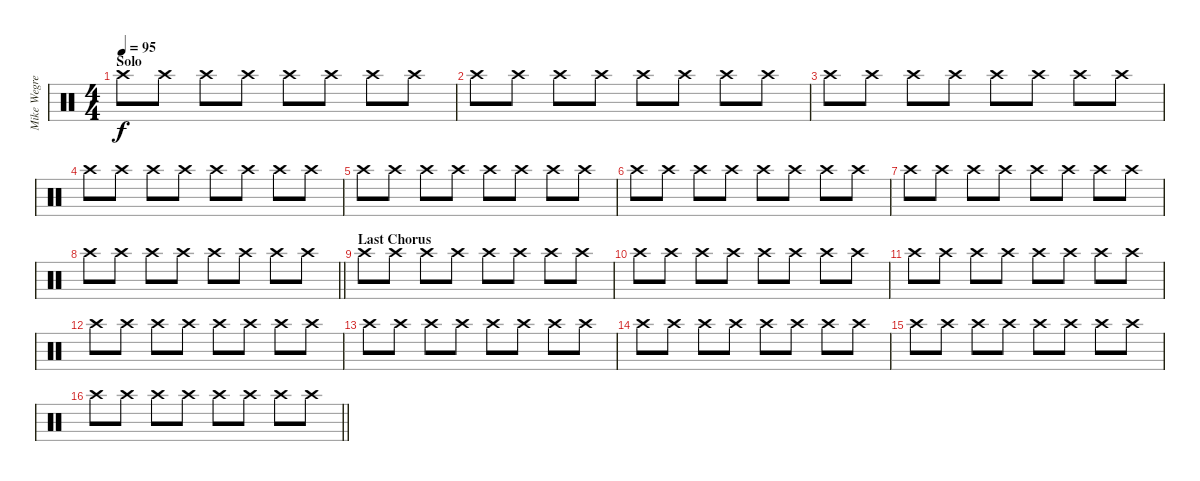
\track ("Mike Wegren" "Mike Wegre") {instrument percussion}
\staff {score}
\articulation defaults
\ts (4 4)
\section ("" "Solo")
\tempo 95
\clef neutral
\ks c "Crash high (hit)".8{dy f} "Crash high (hit)".8 "Crash high (hit)".8 "Crash high (hit)".8 "Crash high (hit)".8 "Crash high (hit)".8 "Crash high (hit)".8 "Crash high (hit)".8
|
"Crash high (hit)".8 "Crash high (hit)".8 "Crash high (hit)".8 "Crash high (hit)".8 "Crash high (hit)".8 "Crash high (hit)".8 "Crash high (hit)".8 "Crash high (hit)".8 |
"Crash high (hit)".8 "Crash high (hit)".8 "Crash high (hit)".8 "Crash high (hit)".8 "Crash high (hit)".8 "Crash high (hit)".8 "Crash high (hit)".8 "Crash high (hit)".8 |
"Crash high (hit)".8 "Crash high (hit)".8 "Crash high (hit)".8 "Crash high (hit)".8 "Crash high (hit)".8 "Crash high (hit)".8 "Crash high (hit)".8 "Crash high (hit)".8 |
"Crash high (hit)".8 "Crash high (hit)".8 "Crash high (hit)".8 "Crash high (hit)".8 "Crash high (hit)".8 "Crash high (hit)".8 "Crash high (hit)".8 "Crash high (hit)".8 |
"Crash high (hit)".8 "Crash high (hit)".8 "Crash high (hit)".8 "Crash high (hit)".8 "Crash high (hit)".8 "Crash high (hit)".8 "Crash high (hit)".8 "Crash high (hit)".8 |
"Crash high (hit)".8 "Crash high (hit)".8 "Crash high (hit)".8 "Crash high (hit)".8 "Crash high (hit)".8 "Crash high (hit)".8 "Crash high (hit)".8 "Crash high (hit)".8 |
\barLineRight lightlight "Crash high (hit)".8 "Crash high (hit)".8 "Crash high (hit)".8 "Crash high (hit)".8 "Crash high (hit)".8 "Crash high (hit)".8 "Crash high (hit)".8 "Crash high (hit)".8
|
\section ("" "Last Chorus")
"Crash high (hit)".8 "Crash high (hit)".8 "Crash high (hit)".8 "Crash high (hit)".8 "Crash high (hit)".8 "Crash high (hit)".8 "Crash high (hit)".8 "Crash high (hit)".8 |
"Crash high (hit)".8 "Crash high (hit)".8 "Crash high (hit)".8 "Crash high (hit)".8 "Crash high (hit)".8 "Crash high (hit)".8 "Crash high (hit)".8 "Crash high (hit)".8 |
"Crash high (hit)".8 "Crash high (hit)".8 "Crash high (hit)".8 "Crash high (hit)".8 "Crash high (hit)".8 "Crash high (hit)".8 "Crash high (hit)".8 "Crash high (hit)".8 |
"Crash high (hit)".8 "Crash high (hit)".8 "Crash high (hit)".8 "Crash high (hit)".8 "Crash high (hit)".8 "Crash high (hit)".8 "Crash high (hit)".8 "Crash high (hit)".8 |
"Crash high (hit)".8 "Crash high (hit)".8 "Crash high (hit)".8 "Crash high (hit)".8 "Crash high (hit)".8 "Crash high (hit)".8 "Crash high (hit)".8 "Crash high (hit)".8 |
"Crash high (hit)".8 "Crash high (hit)".8 "Crash high (hit)".8 "Crash high (hit)".8 "Crash high (hit)".8 "Crash high (hit)".8 "Crash high (hit)".8 "Crash high (hit)".8 |
"Crash high (hit)".8 "Crash high (hit)".8 "Crash high (hit)".8 "Crash high (hit)".8 "Crash high (hit)".8 "Crash high (hit)".8 "Crash high (hit)".8 "Crash high (hit)".8 |
\barLineRight lightlight "Crash high (hit)".8 "Crash high (hit)".8 "Crash high (hit)".8 "Crash high (hit)".8 "Crash high (hit)".8 "Crash high (hit)".8 "Crash high (hit)".8 "Crash high (hit)".8
